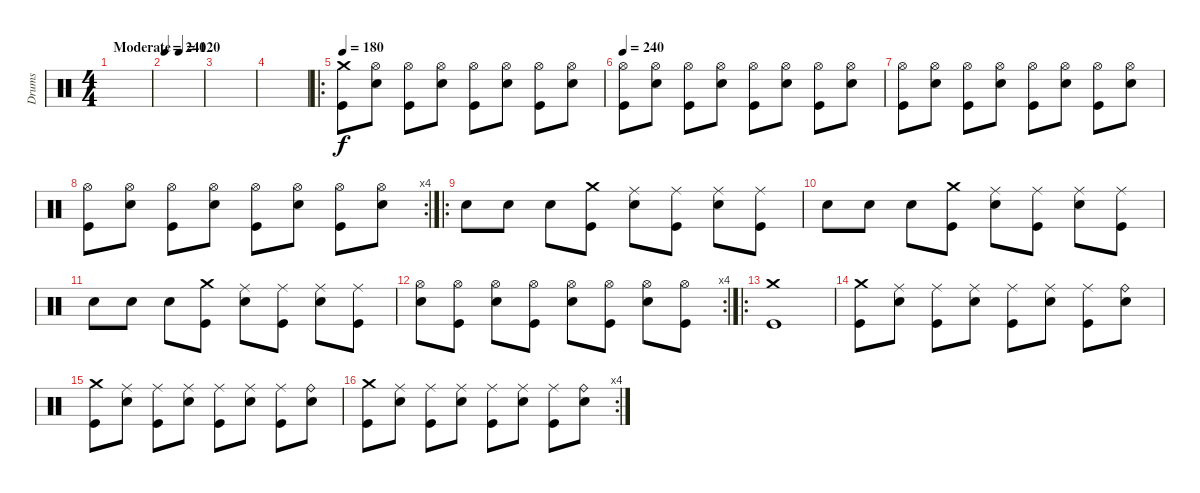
\track ("Drums" "Drums") {instrument percussion}
\staff {score}
\articulation defaults
\ts (4 4)
\tempo (120 "Moderate")
\tempo 180
\tempo (120 "Moderate")
\clef neutral
\ks c
|
\tempo 240
|
|
|
\ro
\tempo 180
("Crash medium (hit)" "Kick (hit)").8 ("Hi-Hat (open)" "Electric Snare (hit)").8 ("Hi-Hat (open)" "Kick (hit)").8 ("Hi-Hat (open)" "Electric Snare (hit)").8 ("Hi-Hat (open)" "Kick (hit)").8 ("Hi-Hat (open)" "Electric Snare (hit)").8 ("Hi-Hat (open)" "Kick (hit)").8 ("Hi-Hat (open)" "Electric Snare (hit)").8 |
\tempo 240
("Hi-Hat (open)" "Kick (hit)").8 ("Hi-Hat (open)" "Electric Snare (hit)").8 ("Hi-Hat (open)" "Kick (hit)").8 ("Hi-Hat (open)" "Electric Snare (hit)").8 ("Hi-Hat (open)" "Kick (hit)").8 ("Hi-Hat (open)" "Electric Snare (hit)").8 ("Hi-Hat (open)" "Kick (hit)").8 ("Hi-Hat (open)" "Electric Snare (hit)").8 |
("Hi-Hat (open)" "Kick (hit)").8 ("Hi-Hat (open)" "Electric Snare (hit)").8 ("Hi-Hat (open)" "Kick (hit)").8 ("Hi-Hat (open)" "Electric Snare (hit)").8 ("Hi-Hat (open)" "Kick (hit)").8 ("Hi-Hat (open)" "Electric Snare (hit)").8 ("Hi-Hat (open)" "Kick (hit)").8 ("Hi-Hat (open)" "Electric Snare (hit)").8 |
\rc 4
("Hi-Hat (open)" "Kick (hit)").8 ("Hi-Hat (open)" "Electric Snare (hit)").8 ("Hi-Hat (open)" "Kick (hit)").8 ("Hi-Hat (open)" "Electric Snare (hit)").8 ("Hi-Hat (open)" "Kick (hit)").8 ("Hi-Hat (open)" "Electric Snare (hit)").8 ("Hi-Hat (open)" "Kick (hit)").8 ("Hi-Hat (open)" "Electric Snare (hit)").8 |
\ro "Electric Snare (hit)".8 "Electric Snare (hit)".8 "Electric Snare (hit)".8
("Crash medium (hit)" "Kick (hit)").8 ("Ride (middle)" "Electric Snare (hit)").8 ("Ride (middle)" "Kick (hit)").8 ("Ride (middle)" "Electric Snare (hit)").8 ("Ride (middle)" "Kick (hit)").8 |
"Electric Snare (hit)".8 "Electric Snare (hit)".8 "Electric Snare (hit)".8 ("Crash medium (hit)" "Kick (hit)").8 ("Ride (middle)" "Electric Snare (hit)").8 ("Ride (middle)" "Kick (hit)").8 ("Ride (middle)" "Electric Snare (hit)").8 ("Ride (middle)" "Kick (hit)").8 |
"Electric Snare (hit)".8 "Electric Snare (hit)".8 "Electric Snare (hit)".8 ("Crash medium (hit)" "Kick (hit)").8 ("Ride (middle)" "Electric Snare (hit)").8 ("Ride (middle)" "Kick (hit)").8 ("Ride (middle)" "Electric Snare (hit)").8 ("Ride (middle)" "Kick (hit)").8 |
\rc 4
("Hi-Hat (open)" "Electric Snare (hit)").8 ("Hi-Hat (open)" "Kick (hit)").8 ("Hi-Hat (open)" "Electric Snare (hit)").8 ("Hi-Hat (open)" "Kick (hit)").8 ("Hi-Hat (open)" "Electric Snare (hit)").8 ("Hi-Hat (open)" "Kick (hit)").8 ("Hi-Hat (open)" "Electric Snare (hit)").8 ("Hi-Hat (open)" "Kick (hit)").8 |
\ro
("Crash medium (hit)" "Kick (hit)").1 |
("Crash medium (hit)" "Kick (hit)").8 ("Ride (middle)" "Electric Snare (hit)").8 ("Ride (middle)" "Kick (hit)").8 ("Ride (middle)" "Electric Snare (hit)").8 ("Ride (middle)" "Kick (hit)").8 ("Ride (middle)" "Electric Snare (hit)").8 ("Ride (middle)" "Kick (hit)").8 ("Ride (bell)" "Electric Snare (hit)").8 |
("Crash medium (hit)" "Kick (hit)").8 ("Ride (middle)" "Electric Snare (hit)").8 ("Ride (middle)" "Kick (hit)").8 ("Ride (middle)" "Electric Snare (hit)").8 ("Ride (middle)" "Kick (hit)").8 ("Ride (middle)" "Electric Snare (hit)").8 ("Ride (middle)" "Kick (hit)").8 ("Ride (bell)" "Electric Snare (hit)").8 |
\rc 4
("Crash medium (hit)" "Kick (hit)").8 ("Ride (middle)" "Electric Snare (hit)").8 ("Ride (middle)" "Kick (hit)").8 ("Ride (middle)" "Electric Snare (hit)").8 ("Ride (middle)" "Kick (hit)").8 ("Ride (middle)" "Electric Snare (hit)").8 ("Ride (middle)" "Kick (hit)").8 ("Ride (bell)" "Electric Snare (hit)").8
